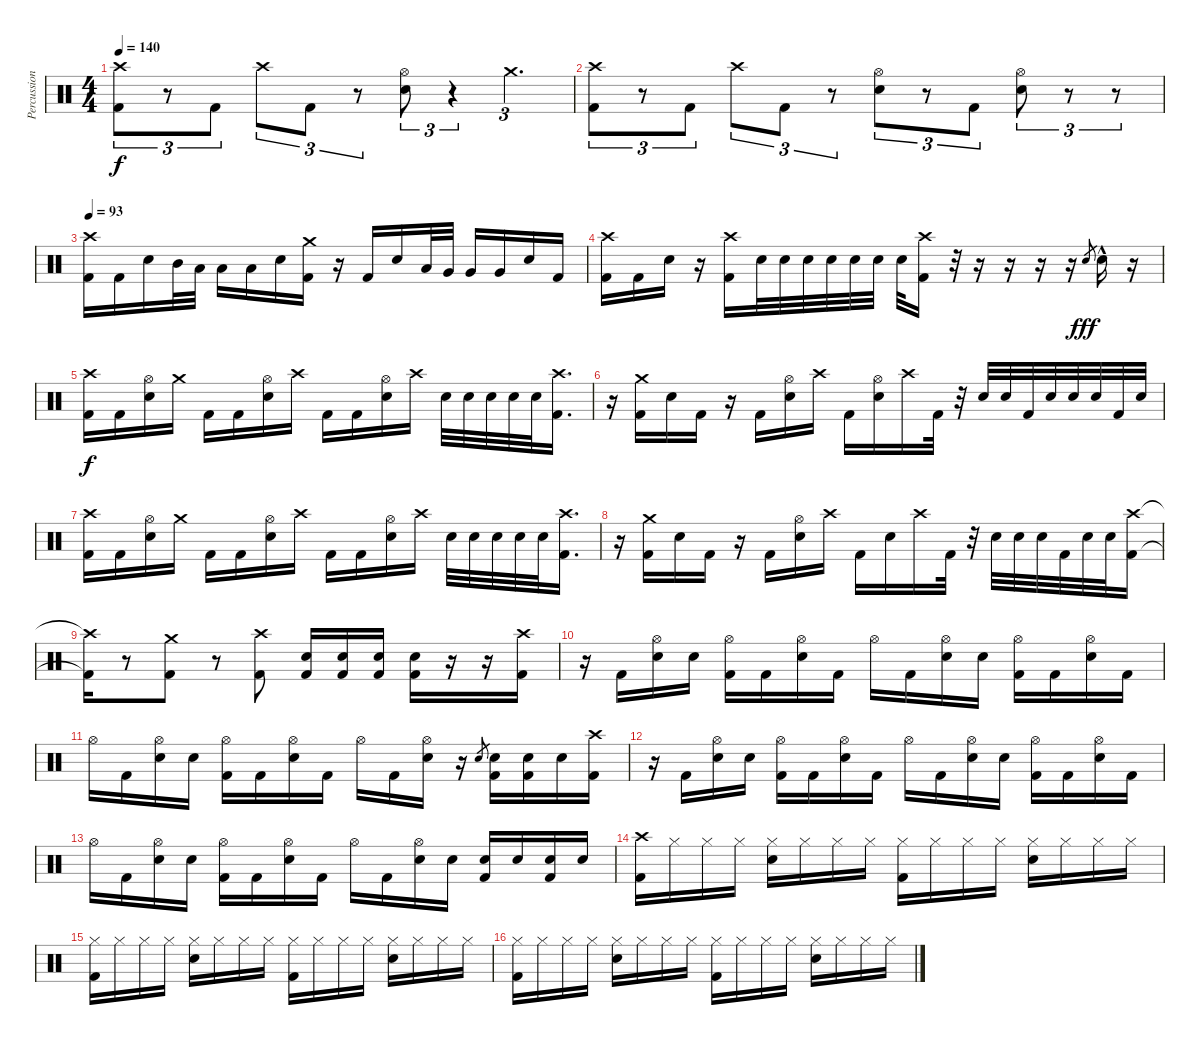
\track ("Percussion" "Percussion") {instrument percussion}
\staff {score}
\articulation defaults
\ts (4 4)
\tempo 140
\clef neutral
\ks c
("Crash high (hit)" "Kick (hit) 2").8{tu (3 2) dy f} r.8{tu (3 2)} "Kick (hit) 2".8{tu (3 2)} "Crash high (hit)".8{tu (3 2)} "Kick (hit) 2".8{tu (3 2)} r.8{tu (3 2)} ("Hi-Hat (open)" "Electric Snare (hit)").8{tu (3 2)} r.4{tu (3 2)} "Crash medium (hit)".4{d tu (3 2)} |
("Crash high (hit)" "Kick (hit) 2").8{tu (3 2)} r.8{tu (3 2)} "Kick (hit) 2".8{tu (3 2)} "Crash high (hit)".8{tu (3 2)} "Kick (hit) 2".8{tu (3 2)} r.8{tu (3 2)} ("Hi-Hat (open)" "Electric Snare (hit)").8{tu (3 2)} r.8{tu (3 2)} "Kick (hit) 2".8{tu (3 2)} ("Hi-Hat (open)" "Electric Snare (hit)").8{tu (3 2)} r.8{tu (3 2)} r.8{tu (3 2)} |
\tempo 93
("Crash high (hit)" "Kick (hit) 2").16 "Kick (hit) 2".16 "Electric Snare (hit)".16 "Mid Tom (hit)".32 "Low Tom (hit)".32 "Low Tom (hit)".16 "Low Tom (hit)".16 "Electric Snare (hit)".16 ("Crash medium (hit)" "Kick (hit) 2").16 r.16 "Kick (hit) 2".16 "Electric Snare (hit)".16 "Low Tom (hit)".32 "Very Low Tom (hit)".32 "Very Low Tom (hit)".16 "Very Low Tom (hit)".16 "Electric Snare (hit)".16 "Kick (hit) 2".16 |
("Crash high (hit)" "Kick (hit) 2").16 "Kick (hit) 2".16 "Electric Snare (hit)".16 r.16 ("Crash high (hit)" "Kick (hit) 2").16 "Electric Snare (hit)".32 "Electric Snare (hit)".32 "Electric Snare (hit)".32 "Electric Snare (hit)".32 "Electric Snare (hit)".32 "Electric Snare (hit)".32 "Electric Snare (hit)".32 ("Crash high (hit)" "Kick (hit) 2").16 r.32 r.16 r.16 r.16 r.16 "Electric Snare (hit)".8{gr dy fff} "Electric Snare (hit)"{hac}.16 r.16 |
("Crash high (hit)" "Kick (hit) 2").16{dy f} "Kick (hit) 2".16 ("Hi-Hat (open)" "Electric Snare (hit)").16 "Crash medium (hit)".16 "Kick (hit) 2".16 "Kick (hit) 2".16 ("Hi-Hat (open)" "Electric Snare (hit)").16 "Crash high (hit)".16 "Kick (hit) 2".16 "Kick (hit) 2".16 ("Hi-Hat (open)" "Electric Snare (hit)").16 "Crash high (hit)".16 "Electric Snare (hit)".32 "Electric Snare (hit)".32 "Electric Snare (hit)".32 "Electric Snare (hit)".32 "Electric Snare (hit)".32 ("Crash high (hit)" "Kick (hit) 2").16{d} |
r.16 ("Crash medium (hit)" "Kick (hit) 2").16 "Electric Snare (hit)".16 "Kick (hit) 2".16 r.16 "Kick (hit) 2".16 ("Hi-Hat (open)" "Electric Snare (hit)").16 "Crash high (hit)".16 "Kick (hit) 2".16 ("Hi-Hat (open)" "Electric Snare (hit)").16 "Crash high (hit)".16 "Kick (hit) 2".32 r.32 "Electric Snare (hit)".32 "Electric Snare (hit)".32 "Kick (hit) 2".32 "Electric Snare (hit)".32 "Electric Snare (hit)".32 "Electric Snare (hit)".32 "Kick (hit) 2".32 "Electric Snare (hit)".32 |
("Crash high (hit)" "Kick (hit) 2").16 "Kick (hit) 2".16 ("Hi-Hat (open)" "Electric Snare (hit)").16 "Crash medium (hit)".16 "Kick (hit) 2".16 "Kick (hit) 2".16 ("Hi-Hat (open)" "Electric Snare (hit)").16 "Crash high (hit)".16 "Kick (hit) 2".16 "Kick (hit) 2".16 ("Hi-Hat (open)" "Electric Snare (hit)").16 "Crash high (hit)".16 "Electric Snare (hit)".32 "Electric Snare (hit)".32 "Electric Snare (hit)".32 "Electric Snare (hit)".32 "Electric Snare (hit)".32 ("Crash high (hit)" "Kick (hit) 2").16{d} |
r.16 ("Crash medium (hit)" "Kick (hit) 2").16 "Electric Snare (hit)".16 "Kick (hit) 2".16 r.16 "Kick (hit) 2".16 ("Hi-Hat (open)" "Electric Snare (hit)").16 "Crash high (hit)".16 "Kick (hit) 2".16 "Electric Snare (hit)".16 "Crash high (hit)".16 "Kick (hit) 2".32 r.32 "Electric Snare (hit)".32 "Electric Snare (hit)".32 "Electric Snare (hit)".32 "Kick (hit) 2".32 "Electric Snare (hit)".32 "Electric Snare (hit)".32 ("Crash high (hit)" "Kick (hit) 2").16 |
("Crash high (hit)"{t} "Kick (hit) 2"{t}).16 r.8 ("Crash medium (hit)" "Kick (hit) 2").8 r.8 ("Crash high (hit)" "Kick (hit) 2").8 ("Electric Snare (hit)" "Kick (hit) 2").16 ("Electric Snare (hit)" "Kick (hit) 2").16 ("Electric Snare (hit)" "Kick (hit) 2").16 ("Electric Snare (hit)" "Kick (hit) 2").16 r.16 r.16 ("Crash high (hit)" "Kick (hit) 2").16 |
r.16 "Kick (hit) 2".16 ("Hi-Hat (open)" "Electric Snare (hit)").16 "Electric Snare (hit)".16 ("Hi-Hat (open)" "Kick (hit) 2").16 "Kick (hit) 2".16 ("Hi-Hat (open)" "Electric Snare (hit)").16 "Kick (hit) 2".16 "Hi-Hat (open)".16 "Kick (hit) 2".16 ("Hi-Hat (open)" "Electric Snare (hit)").16 "Electric Snare (hit)".16 ("Hi-Hat (open)" "Kick (hit) 2").16 "Kick (hit) 2".16 ("Hi-Hat (open)" "Electric Snare (hit)").16 "Kick (hit) 2".16 |
"Hi-Hat (open)".16 "Kick (hit) 2".16 ("Hi-Hat (open)" "Electric Snare (hit)").16 "Electric Snare (hit)".16 ("Hi-Hat (open)" "Kick (hit) 2").16 "Kick (hit) 2".16 ("Hi-Hat (open)" "Electric Snare (hit)").16 "Kick (hit) 2".16 "Hi-Hat (open)".16 "Kick (hit) 2".16 ("Hi-Hat (open)" "Electric Snare (hit)").16 r.16 "Electric Snare (hit)".8{gr} ("Electric Snare (hit)" "Kick (hit) 2").16 ("Electric Snare (hit)" "Kick (hit) 2").16 "Electric Snare (hit)".16 ("Crash high (hit)" "Kick (hit) 2").16 |
r.16 "Kick (hit) 2".16 ("Hi-Hat (open)" "Electric Snare (hit)").16 "Electric Snare (hit)".16 ("Hi-Hat (open)" "Kick (hit) 2").16 "Kick (hit) 2".16 ("Hi-Hat (open)" "Electric Snare (hit)").16 "Kick (hit) 2".16 "Hi-Hat (open)".16 "Kick (hit) 2".16 ("Hi-Hat (open)" "Electric Snare (hit)").16 "Electric Snare (hit)".16 ("Hi-Hat (open)" "Kick (hit) 2").16 "Kick (hit) 2".16 ("Hi-Hat (open)" "Electric Snare (hit)").16 "Kick (hit) 2".16 |
"Hi-Hat (open)".16 "Kick (hit) 2".16 ("Hi-Hat (open)" "Electric Snare (hit)").16 "Electric Snare (hit)".16 ("Hi-Hat (open)" "Kick (hit) 2").16 "Kick (hit) 2".16 ("Hi-Hat (open)" "Electric Snare (hit)").16 "Kick (hit) 2".16 "Hi-Hat (open)".16 "Kick (hit) 2".16 ("Hi-Hat (open)" "Electric Snare (hit)").16 "Electric Snare (hit)".16 ("Electric Snare (hit)" "Kick (hit) 2").16 "Electric Snare (hit)".16 ("Electric Snare (hit)" "Kick (hit) 2").16 "Electric Snare (hit)".16 |
("Crash high (hit)" "Kick (hit) 2").16 "Hi-Hat (closed)".16 "Hi-Hat (closed)".16 "Hi-Hat (closed)".16 ("Hi-Hat (closed)" "Electric Snare (hit)").16 "Hi-Hat (closed)".16 "Hi-Hat (closed)".16 "Hi-Hat (closed)".16 ("Hi-Hat (closed)" "Kick (hit) 2").16 "Hi-Hat (closed)".16 "Hi-Hat (closed)".16 "Hi-Hat (closed)".16 ("Hi-Hat (closed)" "Electric Snare (hit)").16 "Hi-Hat (closed)".16 "Hi-Hat (closed)".16 "Hi-Hat (closed)".16 |
("Hi-Hat (closed)" "Kick (hit) 2").16 "Hi-Hat (closed)".16 "Hi-Hat (closed)".16 "Hi-Hat (closed)".16 ("Hi-Hat (closed)" "Electric Snare (hit)").16 "Hi-Hat (closed)".16 "Hi-Hat (closed)".16 "Hi-Hat (closed)".16 ("Hi-Hat (closed)" "Kick (hit) 2").16 "Hi-Hat (closed)".16 "Hi-Hat (closed)".16 "Hi-Hat (closed)".16 ("Hi-Hat (closed)" "Electric Snare (hit)").16 "Hi-Hat (closed)".16 "Hi-Hat (closed)".16 "Hi-Hat (closed)".16 |
("Hi-Hat (closed)" "Kick (hit) 2").16 "Hi-Hat (closed)".16 "Hi-Hat (closed)".16 "Hi-Hat (closed)".16 ("Hi-Hat (closed)" "Electric Snare (hit)").16 "Hi-Hat (closed)".16 "Hi-Hat (closed)".16 "Hi-Hat (closed)".16 ("Hi-Hat (closed)" "Kick (hit) 2").16 "Hi-Hat (closed)".16 "Hi-Hat (closed)".16 "Hi-Hat (closed)".16 ("Hi-Hat (closed)" "Electric Snare (hit)").16 "Hi-Hat (closed)".16 "Hi-Hat (closed)".16 "Hi-Hat (closed)".16
